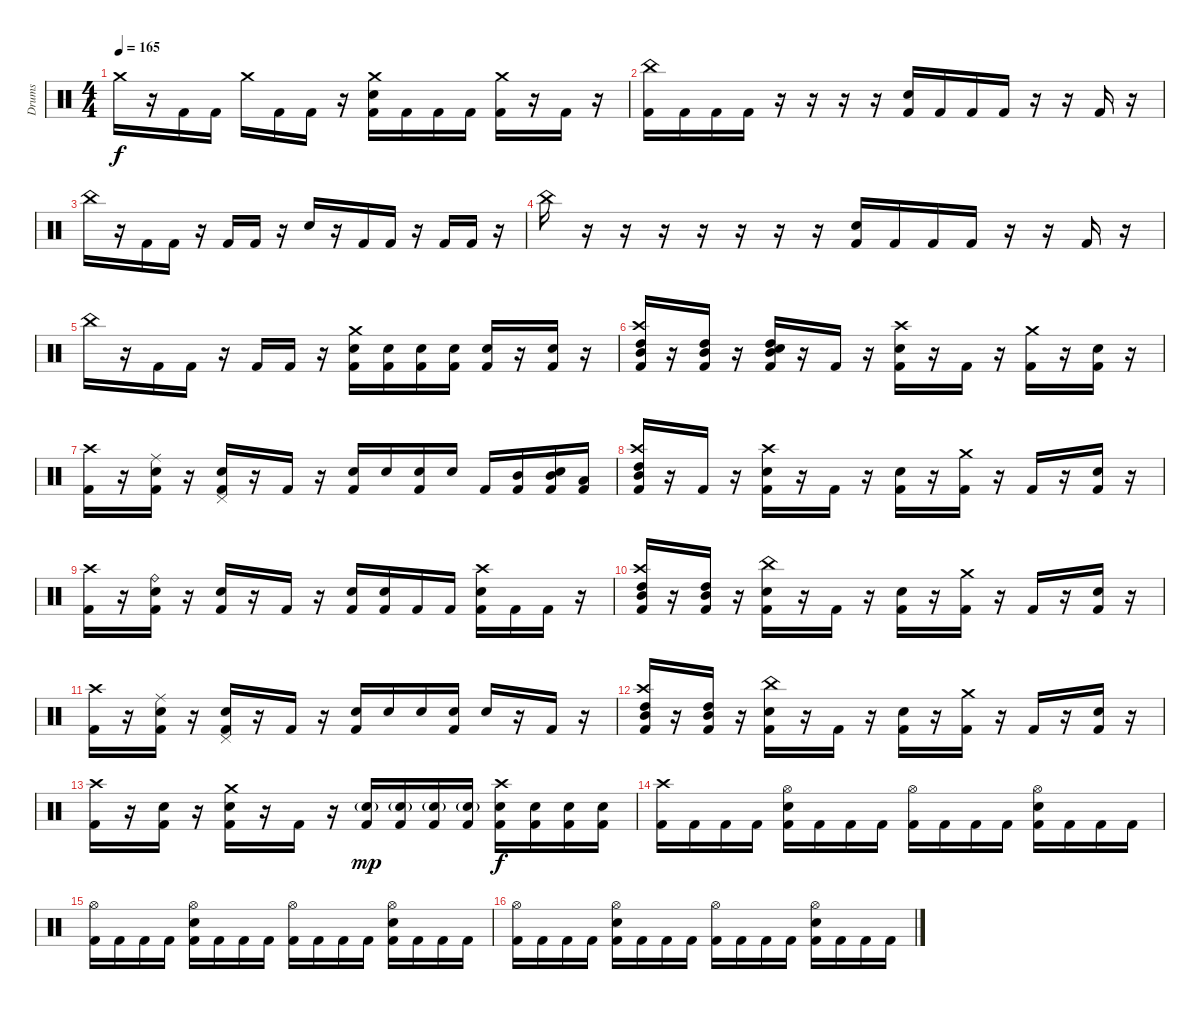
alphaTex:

\track ("Drums" "Drums") {instrument percussion}
\staff {score}
\articulation defaults
\ts (4 4)
\tempo 165
\clef neutral
\ks c "Crash medium (hit)".16{dy f}
r.16 "Kick (hit) 2".16 "Kick (hit) 2".16 "Crash medium (hit)".16 "Kick (hit) 2".16 "Kick (hit) 2".16 r.16 ("Crash medium (hit)" "Electric Snare (hit)" "Kick (hit) 2").16 "Kick (hit) 2".16 "Kick (hit) 2".16 "Kick (hit) 2".16 ("Crash medium (hit)" "Kick (hit) 2").16 r.16 "Kick (hit) 2".16 r.16 |
("China (hit)" "Kick (hit) 2").16 "Kick (hit) 2".16 "Kick (hit) 2".16 "Kick (hit) 2".16 r.16 r.16 r.16 r.16 ("Electric Snare (hit)" "Kick (hit) 2").16 "Kick (hit) 2".16 "Kick (hit) 2".16 "Kick (hit) 2".16 r.16 r.16 "Kick (hit) 2".16 r.16 |
"China (hit)".16 r.16 "Kick (hit) 2".16 "Kick (hit) 2".16 r.16 "Kick (hit) 2".16 "Kick (hit) 2".16 r.16 "Electric Snare (hit)".16 r.16 "Kick (hit) 2".16 "Kick (hit) 2".16 r.16 "Kick (hit) 2".16 "Kick (hit) 2".16 r.16 |
"China (hit)".16 r.16 r.16 r.16 r.16 r.16 r.16 r.16 ("Electric Snare (hit)" "Kick (hit) 2").16 "Kick (hit) 2".16 "Kick (hit) 2".16 "Kick (hit) 2".16 r.16 r.16 "Kick (hit) 2".16 r.16 |
"China (hit)".16 r.16 "Kick (hit) 2".16 "Kick (hit) 2".16 r.16 "Kick (hit) 2".16 "Kick (hit) 2".16 r.16 ("Crash medium (hit)" "Electric Snare (hit)" "Kick (hit) 2").16 ("Electric Snare (hit)" "Kick (hit) 2").16 ("Electric Snare (hit)" "Kick (hit) 2").16 ("Electric Snare (hit)" "Kick (hit) 2").16 ("Electric Snare (hit)" "Kick (hit) 2").16 r.16 ("Electric Snare (hit)" "Kick (hit) 2").16 r.16 |
("Crash high (hit)" "High Tom (hit)" "Mid Tom (hit)" "Kick (hit) 2").16 r.16 ("High Tom (hit)" "Mid Tom (hit)" "Kick (hit) 2").16 r.16 ("High Tom (hit)" "Mid Tom (hit)" "Electric Snare (hit)" "Kick (hit) 2").16 r.16 "Kick (hit) 2".16 r.16 ("Crash high (hit)" "Electric Snare (hit)" "Kick (hit) 2").16 r.16 "Kick (hit) 2".16 r.16 ("Crash medium (hit)" "Kick (hit) 2").16 r.16 ("Electric Snare (hit)" "Kick (hit) 2").16 r.16 |
("Crash high (hit)" "Kick (hit) 2").16 r.16 ("Ride (middle)" "Electric Snare (hit)" "Kick (hit) 2").16 r.16 ("Pedal Hi-Hat (hit)" "Electric Snare (hit)" "Kick (hit) 2").16 r.16 "Kick (hit) 2".16 r.16 ("Electric Snare (hit)" "Kick (hit) 2").16 "Electric Snare (hit)".16 ("Electric Snare (hit)" "Kick (hit) 2").16 "Electric Snare (hit)".16 "Kick (hit) 2".16 ("Mid Tom (hit)" "Kick (hit) 2").16 ("Mid Tom (hit)" "Electric Snare (hit)" "Kick (hit) 2").16 ("Low Tom (hit)" "Kick (hit) 2").16 |
("Crash high (hit)" "High Tom (hit)" "Mid Tom (hit)" "Kick (hit) 2").16 r.16 "Kick (hit) 2".16 r.16 ("Crash high (hit)" "Electric Snare (hit)" "Kick (hit) 2").16 r.16 "Kick (hit) 2".16 r.16 ("Electric Snare (hit)" "Kick (hit) 2").16 r.16 ("Crash medium (hit)" "Kick (hit) 2").16 r.16 "Kick (hit) 2".16 r.16 ("Electric Snare (hit)" "Kick (hit) 2").16 r.16 |
("Crash high (hit)" "Kick (hit) 2").16 r.16 ("Ride (bell)" "Electric Snare (hit)" "Kick (hit) 2").16 r.16 ("Electric Snare (hit)" "Kick (hit) 2").16 r.16 "Kick (hit) 2".16 r.16 ("Electric Snare (hit)" "Kick (hit) 2").16 ("Electric Snare (hit)" "Kick (hit) 2").16 "Kick (hit) 2".16 "Kick (hit) 2".16 ("Crash high (hit)" "Electric Snare (hit)" "Kick (hit) 2").16 "Kick (hit) 2".16 "Kick (hit) 2".16 r.16 |
("Crash high (hit)" "High Tom (hit)" "Mid Tom (hit)" "Kick (hit) 2").16 r.16 ("High Tom (hit)" "Mid Tom (hit)" "Kick (hit) 2").16 r.16 ("China (hit)" "Electric Snare (hit)" "Kick (hit) 2").16 r.16 "Kick (hit) 2".16 r.16 ("Electric Snare (hit)" "Kick (hit) 2").16 r.16 ("Crash medium (hit)" "Kick (hit) 2").16 r.16 "Kick (hit) 2".16 r.16 ("Electric Snare (hit)" "Kick (hit) 2").16 r.16 |
("Crash high (hit)" "Kick (hit) 2").16 r.16 ("Ride (middle)" "Electric Snare (hit)" "Kick (hit) 2").16 r.16 ("Pedal Hi-Hat (hit)" "Electric Snare (hit)" "Kick (hit) 2").16 r.16 "Kick (hit) 2".16 r.16 ("Electric Snare (hit)" "Kick (hit) 2").16 "Electric Snare (hit)".16 "Electric Snare (hit)".16 ("Electric Snare (hit)" "Kick (hit) 2").16 "Electric Snare (hit)".16 r.16 "Kick (hit) 2".16 r.16 |
("Crash high (hit)" "High Tom (hit)" "Mid Tom (hit)" "Kick (hit) 2").16 r.16 ("High Tom (hit)" "Mid Tom (hit)" "Kick (hit) 2").16 r.16 ("China (hit)" "Electric Snare (hit)" "Kick (hit) 2").16 r.16 "Kick (hit) 2".16 r.16 ("Electric Snare (hit)" "Kick (hit) 2").16 r.16 ("Crash medium (hit)" "Kick (hit) 2").16 r.16 "Kick (hit) 2".16 r.16 ("Electric Snare (hit)" "Kick (hit) 2").16 r.16 |
("Crash high (hit)" "Kick (hit) 2").16 r.16 ("Electric Snare (hit)" "Kick (hit) 2").16 r.16 ("Crash medium (hit)" "Electric Snare (hit)" "Kick (hit) 2").16 r.16 "Kick (hit) 2".16 r.16 ("Electric Snare (hit)"{g} "Kick (hit) 2").16{dy mp} ("Electric Snare (hit)"{g} "Kick (hit) 2").16 ("Electric Snare (hit)"{g} "Kick (hit) 2").16 ("Electric Snare (hit)"{g} "Kick (hit) 2").16 ("Crash high (hit)" "Electric Snare (hit)" "Kick (hit) 2").16{dy f} ("Electric Snare (hit)" "Kick (hit) 2").16 ("Electric Snare (hit)" "Kick (hit) 2").16 ("Electric Snare (hit)" "Kick (hit) 2").16 |
("Crash high (hit)" "Kick (hit) 2").16 "Kick (hit) 2".16 "Kick (hit) 2".16 "Kick (hit) 2".16 ("Hi-Hat (open)" "Electric Snare (hit)" "Kick (hit) 2").16 "Kick (hit) 2".16 "Kick (hit) 2".16 "Kick (hit) 2".16 ("Hi-Hat (open)" "Kick (hit) 2").16 "Kick (hit) 2".16 "Kick (hit) 2".16 "Kick (hit) 2".16 ("Hi-Hat (open)" "Electric Snare (hit)" "Kick (hit) 2").16 "Kick (hit) 2".16 "Kick (hit) 2".16 "Kick (hit) 2".16 |
("Hi-Hat (open)" "Kick (hit) 2").16 "Kick (hit) 2".16 "Kick (hit) 2".16 "Kick (hit) 2".16 ("Hi-Hat (open)" "Electric Snare (hit)" "Kick (hit) 2").16 "Kick (hit) 2".16 "Kick (hit) 2".16 "Kick (hit) 2".16 ("Hi-Hat (open)" "Kick (hit) 2").16 "Kick (hit) 2".16 "Kick (hit) 2".16 "Kick (hit) 2".16 ("Hi-Hat (open)" "Electric Snare (hit)" "Kick (hit) 2").16 "Kick (hit) 2".16 "Kick (hit) 2".16 "Kick (hit) 2".16 |
("Hi-Hat (open)" "Kick (hit) 2").16 "Kick (hit) 2".16 "Kick (hit) 2".16 "Kick (hit) 2".16 ("Hi-Hat (open)" "Electric Snare (hit)" "Kick (hit) 2").16 "Kick (hit) 2".16 "Kick (hit) 2".16 "Kick (hit) 2".16 ("Hi-Hat (open)" "Kick (hit) 2").16 "Kick (hit) 2".16 "Kick (hit) 2".16 "Kick (hit) 2".16 ("Hi-Hat (open)" "Electric Snare (hit)" "Kick (hit) 2").16 "Kick (hit) 2".16 "Kick (hit) 2".16 "Kick (hit) 2".16
